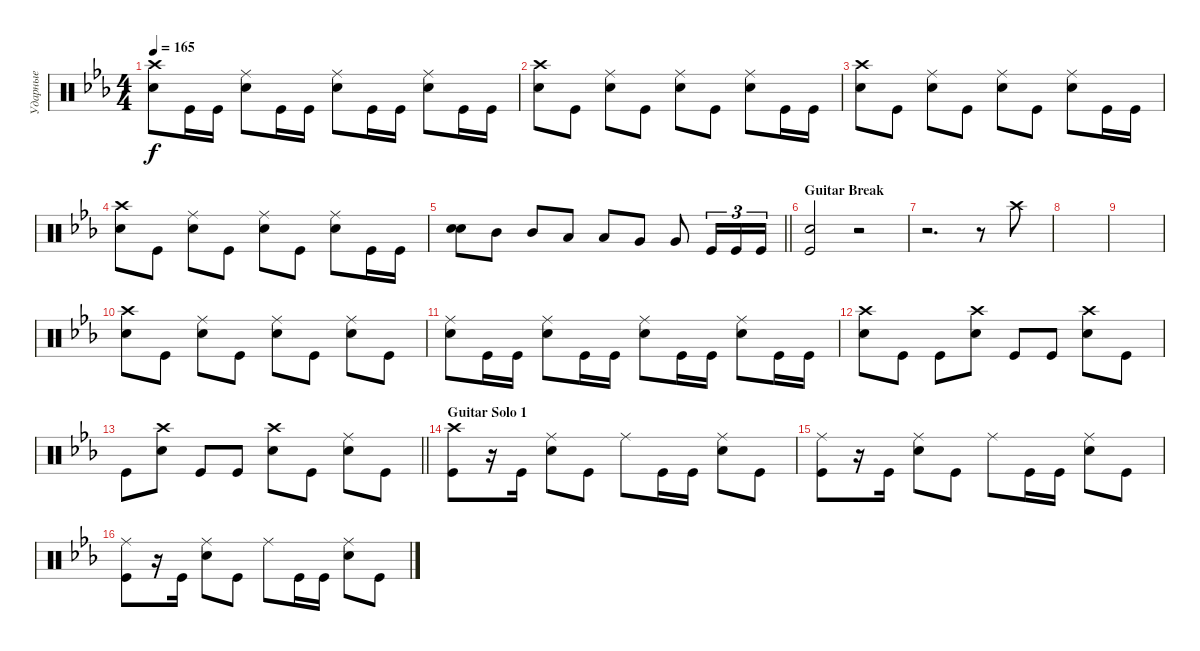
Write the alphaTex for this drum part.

\track ("Ударные" "Ударные") {instrument percussion}
\staff {score}
\articulation defaults
\ts (4 4)
\tempo 165
\clef neutral
\ks cminor
("Snare (hit) 2" "Crash high (hit)").8{dy f} "Kick (hit)".16 "Kick (hit)".16 ("Snare (hit) 2" "Ride (middle)").8 "Kick (hit)".16 "Kick (hit)".16 ("Snare (hit) 2" "Ride (middle)").8 "Kick (hit)".16 "Kick (hit)".16 ("Snare (hit) 2" "Ride (middle)").8 "Kick (hit)".16 "Kick (hit)".16 |
("Snare (hit) 2" "Crash high (hit)").8 "Kick (hit)".8 ("Snare (hit) 2" "Ride (middle)").8 "Kick (hit)".8 ("Snare (hit) 2" "Ride (middle)").8 "Kick (hit)".8 ("Snare (hit) 2" "Ride (middle)").8 "Kick (hit)".16 "Kick (hit)".16 |
("Snare (hit) 2" "Crash high (hit)").8 "Kick (hit)".8 ("Snare (hit) 2" "Ride (middle)").8 "Kick (hit)".8 ("Snare (hit) 2" "Ride (middle)").8 "Kick (hit)".8 ("Snare (hit) 2" "Ride (middle)").8 "Kick (hit)".16 "Kick (hit)".16 |
("Snare (hit) 2" "Crash high (hit)").8 "Kick (hit)".8 ("Snare (hit) 2" "Ride (middle)").8 "Kick (hit)".8 ("Snare (hit) 2" "Ride (middle)").8 "Kick (hit)".8 ("Snare (hit) 2" "Ride (middle)").8 "Kick (hit)".16 "Kick (hit)".16 |
\barLineRight lightlight
("Snare (hit) 2" "Snare (hit) 2").8{bd 240} "Mid Tom (hit)".8 "Mid Tom (hit)".8 "Low Tom (hit)".8 "Low Tom (hit)".8 "Very Low Tom (hit)".8 "Very Low Tom (hit)".8 "Kick (hit)".16{tu (3 2)} "Kick (hit)".16{tu (3 2)} "Kick (hit)".16{tu (3 2)} |
\section ("" "Guitar Break")
("Kick (hit)" "Snare (hit) 2").2 r.2 |
r.2{d} r.8 "Crash high (hit)".8 |
|
|
("Snare (hit) 2" "Crash high (hit)").8 "Kick (hit)".8 ("Snare (hit) 2" "Ride (middle)").8 "Kick (hit)".8 ("Snare (hit) 2" "Ride (middle)").8 "Kick (hit)".8 ("Snare (hit) 2" "Ride (middle)").8 "Kick (hit)".8 |
("Snare (hit) 2" "Ride (middle)").8 "Kick (hit)".16 "Kick (hit)".16 ("Snare (hit) 2" "Ride (middle)").8 "Kick (hit)".16 "Kick (hit)".16 ("Snare (hit) 2" "Ride (middle)").8 "Kick (hit)".16 "Kick (hit)".16 ("Snare (hit) 2" "Ride (middle)").8 "Kick (hit)".16 "Kick (hit)".16 |
("Snare (hit) 2" "Crash high (hit)").8 "Kick (hit)".8 "Kick (hit)".8 ("Snare (hit) 2" "Crash high (hit)").8 "Kick (hit)".8 "Kick (hit)".8 ("Snare (hit) 2" "Crash high (hit)").8 "Kick (hit)".8 |
\barLineRight lightlight "Kick (hit)".8
("Snare (hit) 2" "Crash high (hit)").8 "Kick (hit)".8 "Kick (hit)".8 ("Snare (hit) 2" "Crash high (hit)").8 "Kick (hit)".8 ("Snare (hit) 2" "Ride (middle)").8 "Kick (hit)".8 |
\section ("" "Guitar Solo 1")
("Kick (hit)" "Crash high (hit)").8 r.16 "Kick (hit)".16 ("Snare (hit) 2" "Ride (middle)").8 "Kick (hit)".8 "Ride (middle)".8 "Kick (hit)".16 "Kick (hit)".16 ("Snare (hit) 2" "Ride (middle)").8 "Kick (hit)".8 |
("Kick (hit)" "Ride (middle)").8 r.16 "Kick (hit)".16 ("Snare (hit) 2" "Ride (middle)").8 "Kick (hit)".8 "Ride (middle)".8 "Kick (hit)".16 "Kick (hit)".16 ("Snare (hit) 2" "Ride (middle)").8 "Kick (hit)".8 |
("Kick (hit)" "Ride (middle)").8 r.16 "Kick (hit)".16 ("Snare (hit) 2" "Ride (middle)").8 "Kick (hit)".8 "Ride (middle)".8 "Kick (hit)".16 "Kick (hit)".16 ("Snare (hit) 2" "Ride (middle)").8 "Kick (hit)".8
